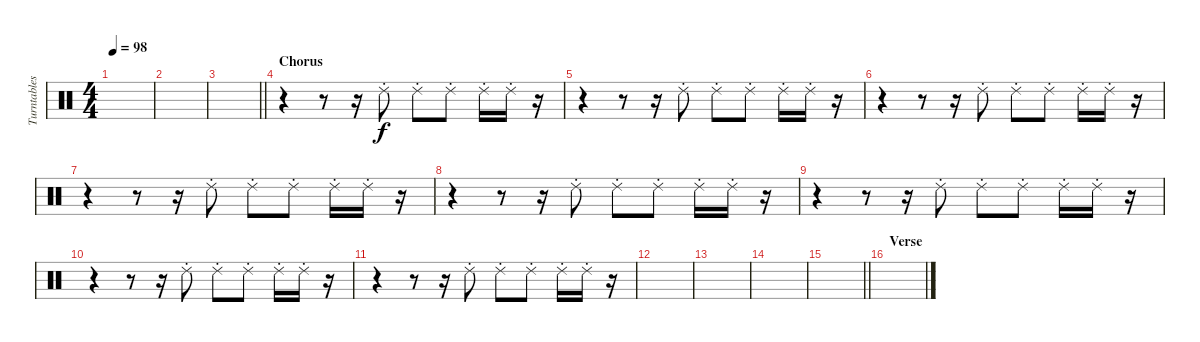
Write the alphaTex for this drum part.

\track ("Turntables - Joe Hahn" "Turntables") {instrument percussion}
\staff {score}
\articulation defaults
\ts (4 4)
\tempo 98
\clef neutral
\ks c
|
|
\barLineRight lightlight
|
\section ("" "Chorus")
r.4 r.8 r.16 "Ride (choke) 2".8 "Ride (choke) 2".8 "Ride (choke) 2".8 "Ride (choke) 2".16 "Ride (choke) 2".16 r.16 |
r.4 r.8 r.16 "Ride (choke) 2".8 "Ride (choke) 2".8 "Ride (choke) 2".8 "Ride (choke) 2".16 "Ride (choke) 2".16 r.16 |
r.4 r.8 r.16 "Ride (choke) 2".8 "Ride (choke) 2".8 "Ride (choke) 2".8 "Ride (choke) 2".16 "Ride (choke) 2".16 r.16 |
r.4 r.8 r.16 "Ride (choke) 2".8 "Ride (choke) 2".8 "Ride (choke) 2".8 "Ride (choke) 2".16 "Ride (choke) 2".16 r.16 |
r.4 r.8 r.16 "Ride (choke) 2".8 "Ride (choke) 2".8 "Ride (choke) 2".8 "Ride (choke) 2".16 "Ride (choke) 2".16 r.16 |
r.4 r.8 r.16 "Ride (choke) 2".8 "Ride (choke) 2".8 "Ride (choke) 2".8 "Ride (choke) 2".16 "Ride (choke) 2".16 r.16 |
r.4 r.8 r.16 "Ride (choke) 2".8 "Ride (choke) 2".8 "Ride (choke) 2".8 "Ride (choke) 2".16 "Ride (choke) 2".16 r.16 |
r.4 r.8 r.16 "Ride (choke) 2".8 "Ride (choke) 2".8 "Ride (choke) 2".8 "Ride (choke) 2".16 "Ride (choke) 2".16 r.16 |
|
|
|
\barLineRight lightlight
|
\section ("" "Verse")
